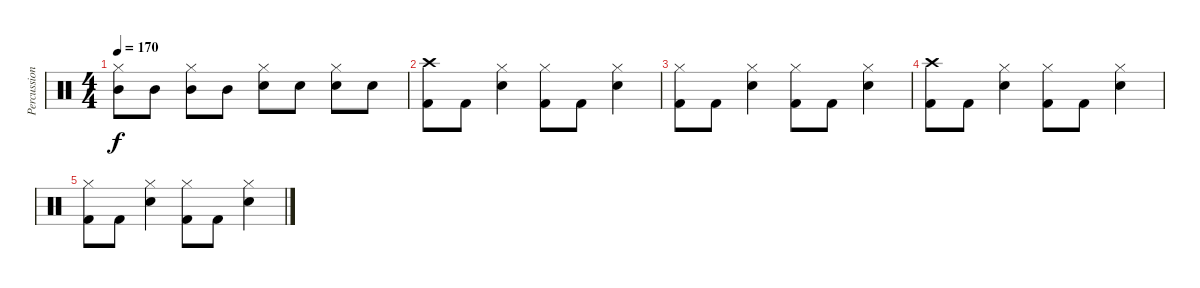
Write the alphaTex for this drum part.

\track ("Percussion" "Percussion") {instrument percussion}
\staff {score}
\articulation defaults
\ts (4 4)
\tempo 170
\clef neutral
\ks c
("Hi-Hat (closed)" "Mid Tom (hit)").8{dy f} "Mid Tom (hit)".8 ("Hi-Hat (closed)" "Mid Tom (hit)").8 "Mid Tom (hit)".8 ("Hi-Hat (closed)" "Electric Snare (hit)").8 "Electric Snare (hit)".8 ("Hi-Hat (closed)" "Electric Snare (hit)").8 "Electric Snare (hit)".8 |
("Crash high (hit)" "Kick (hit) 2").8 "Kick (hit) 2".8 ("Hi-Hat (closed)" "Electric Snare (hit)").4 ("Hi-Hat (closed)" "Kick (hit) 2").8 "Kick (hit) 2".8 ("Hi-Hat (closed)" "Electric Snare (hit)").4 |
("Hi-Hat (closed)" "Kick (hit) 2").8 "Kick (hit) 2".8 ("Hi-Hat (closed)" "Electric Snare (hit)").4 ("Hi-Hat (closed)" "Kick (hit) 2").8 "Kick (hit) 2".8 ("Hi-Hat (closed)" "Electric Snare (hit)").4 |
("Crash high (hit)" "Kick (hit) 2").8 "Kick (hit) 2".8 ("Hi-Hat (closed)" "Electric Snare (hit)").4 ("Hi-Hat (closed)" "Kick (hit) 2").8 "Kick (hit) 2".8 ("Hi-Hat (closed)" "Electric Snare (hit)").4 |
("Hi-Hat (closed)" "Kick (hit) 2").8 "Kick (hit) 2".8 ("Hi-Hat (closed)" "Electric Snare (hit)").4 ("Hi-Hat (closed)" "Kick (hit) 2").8 "Kick (hit) 2".8 ("Hi-Hat (closed)" "Electric Snare (hit)").4
